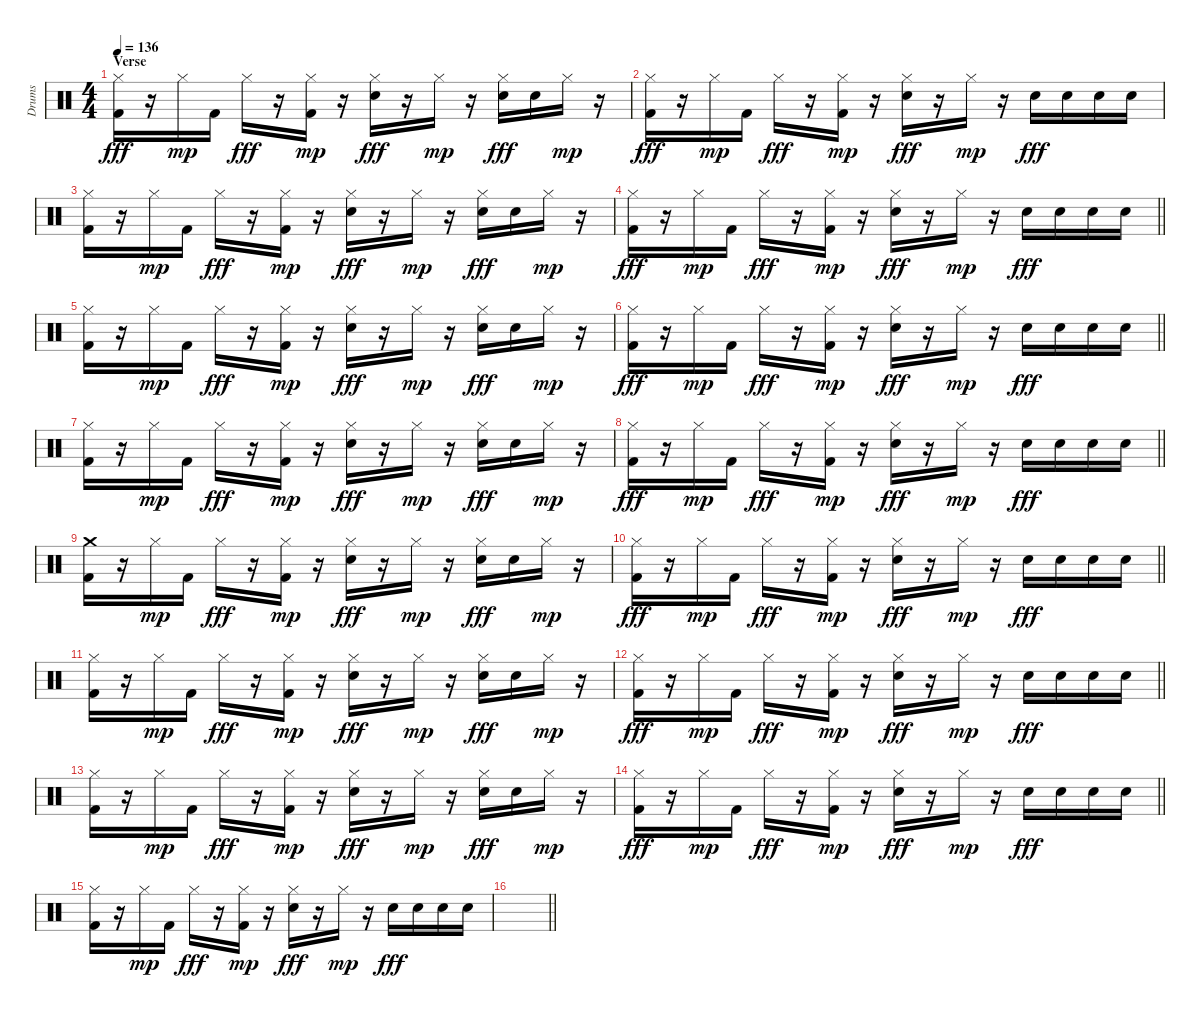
\track ("Drums" "Drums") {instrument percussion}
\staff {score}
\articulation defaults
\ts (4 4)
\section ("" "Verse")
\tempo 136
\clef neutral
\ks c
("Hi-Hat (closed)" "Kick (hit) 2").16{dy fff volume 13} r.16 "Hi-Hat (closed)".16{dy mp} "Kick (hit) 2".16 "Hi-Hat (closed)".16{dy fff} r.16 ("Hi-Hat (closed)" "Kick (hit) 2").16{dy mp} r.16 ("Hi-Hat (closed)" "Electric Snare (hit)").16{dy fff} r.16 "Hi-Hat (closed)".16{dy mp} r.16 ("Hi-Hat (closed)" "Electric Snare (hit)").16{dy fff} "Electric Snare (hit)".16 "Hi-Hat (closed)".16{dy mp} r.16 |
("Hi-Hat (closed)" "Kick (hit) 2").16{dy fff} r.16 "Hi-Hat (closed)".16{dy mp} "Kick (hit) 2".16 "Hi-Hat (closed)".16{dy fff} r.16 ("Hi-Hat (closed)" "Kick (hit) 2").16{dy mp} r.16 ("Hi-Hat (closed)" "Electric Snare (hit)").16{dy fff} r.16 "Hi-Hat (closed)".16{dy mp} r.16 "Electric Snare (hit)".16{dy fff} "Electric Snare (hit)".16 "Electric Snare (hit)".16 "Electric Snare (hit)".16 |
("Hi-Hat (closed)" "Kick (hit) 2").16 r.16 "Hi-Hat (closed)".16{dy mp} "Kick (hit) 2".16 "Hi-Hat (closed)".16{dy fff} r.16 ("Hi-Hat (closed)" "Kick (hit) 2").16{dy mp} r.16 ("Hi-Hat (closed)" "Electric Snare (hit)").16{dy fff} r.16 "Hi-Hat (closed)".16{dy mp} r.16 ("Hi-Hat (closed)" "Electric Snare (hit)").16{dy fff} "Electric Snare (hit)".16 "Hi-Hat (closed)".16{dy mp} r.16 |
\barLineRight lightlight
("Hi-Hat (closed)" "Kick (hit) 2").16{dy fff} r.16 "Hi-Hat (closed)".16{dy mp} "Kick (hit) 2".16 "Hi-Hat (closed)".16{dy fff} r.16 ("Hi-Hat (closed)" "Kick (hit) 2").16{dy mp} r.16 ("Hi-Hat (closed)" "Electric Snare (hit)").16{dy fff} r.16 "Hi-Hat (closed)".16{dy mp} r.16 "Electric Snare (hit)".16{dy fff} "Electric Snare (hit)".16 "Electric Snare (hit)".16 "Electric Snare (hit)".16 |
("Hi-Hat (closed)" "Kick (hit) 2").16 r.16 "Hi-Hat (closed)".16{dy mp} "Kick (hit) 2".16 "Hi-Hat (closed)".16{dy fff} r.16 ("Hi-Hat (closed)" "Kick (hit) 2").16{dy mp} r.16 ("Hi-Hat (closed)" "Electric Snare (hit)").16{dy fff} r.16 "Hi-Hat (closed)".16{dy mp} r.16 ("Hi-Hat (closed)" "Electric Snare (hit)").16{dy fff} "Electric Snare (hit)".16 "Hi-Hat (closed)".16{dy mp} r.16 |
\barLineRight lightlight
("Hi-Hat (closed)" "Kick (hit) 2").16{dy fff} r.16 "Hi-Hat (closed)".16{dy mp} "Kick (hit) 2".16 "Hi-Hat (closed)".16{dy fff} r.16 ("Hi-Hat (closed)" "Kick (hit) 2").16{dy mp} r.16 ("Hi-Hat (closed)" "Electric Snare (hit)").16{dy fff} r.16 "Hi-Hat (closed)".16{dy mp} r.16 "Electric Snare (hit)".16{dy fff} "Electric Snare (hit)".16 "Electric Snare (hit)".16 "Electric Snare (hit)".16 |
("Hi-Hat (closed)" "Kick (hit) 2").16 r.16 "Hi-Hat (closed)".16{dy mp} "Kick (hit) 2".16 "Hi-Hat (closed)".16{dy fff} r.16 ("Hi-Hat (closed)" "Kick (hit) 2").16{dy mp} r.16 ("Hi-Hat (closed)" "Electric Snare (hit)").16{dy fff} r.16 "Hi-Hat (closed)".16{dy mp} r.16 ("Hi-Hat (closed)" "Electric Snare (hit)").16{dy fff} "Electric Snare (hit)".16 "Hi-Hat (closed)".16{dy mp} r.16 |
\barLineRight lightlight
("Hi-Hat (closed)" "Kick (hit) 2").16{dy fff} r.16 "Hi-Hat (closed)".16{dy mp} "Kick (hit) 2".16 "Hi-Hat (closed)".16{dy fff} r.16 ("Hi-Hat (closed)" "Kick (hit) 2").16{dy mp} r.16 ("Hi-Hat (closed)" "Electric Snare (hit)").16{dy fff} r.16 "Hi-Hat (closed)".16{dy mp} r.16 "Electric Snare (hit)".16{dy fff} "Electric Snare (hit)".16 "Electric Snare (hit)".16 "Electric Snare (hit)".16 |
("Crash medium (hit)" "Kick (hit) 2").16 r.16 "Hi-Hat (closed)".16{dy mp} "Kick (hit) 2".16 "Hi-Hat (closed)".16{dy fff} r.16 ("Hi-Hat (closed)" "Kick (hit) 2").16{dy mp} r.16 ("Hi-Hat (closed)" "Electric Snare (hit)").16{dy fff} r.16 "Hi-Hat (closed)".16{dy mp} r.16 ("Hi-Hat (closed)" "Electric Snare (hit)").16{dy fff} "Electric Snare (hit)".16 "Hi-Hat (closed)".16{dy mp} r.16 |
\barLineRight lightlight
("Hi-Hat (closed)" "Kick (hit) 2").16{dy fff} r.16 "Hi-Hat (closed)".16{dy mp} "Kick (hit) 2".16 "Hi-Hat (closed)".16{dy fff} r.16 ("Hi-Hat (closed)" "Kick (hit) 2").16{dy mp} r.16 ("Hi-Hat (closed)" "Electric Snare (hit)").16{dy fff} r.16 "Hi-Hat (closed)".16{dy mp} r.16 "Electric Snare (hit)".16{dy fff} "Electric Snare (hit)".16 "Electric Snare (hit)".16 "Electric Snare (hit)".16 |
("Hi-Hat (closed)" "Kick (hit) 2").16 r.16 "Hi-Hat (closed)".16{dy mp} "Kick (hit) 2".16 "Hi-Hat (closed)".16{dy fff} r.16 ("Hi-Hat (closed)" "Kick (hit) 2").16{dy mp} r.16 ("Hi-Hat (closed)" "Electric Snare (hit)").16{dy fff} r.16 "Hi-Hat (closed)".16{dy mp} r.16 ("Hi-Hat (closed)" "Electric Snare (hit)").16{dy fff} "Electric Snare (hit)".16 "Hi-Hat (closed)".16{dy mp} r.16 |
\barLineRight lightlight
("Hi-Hat (closed)" "Kick (hit) 2").16{dy fff} r.16 "Hi-Hat (closed)".16{dy mp} "Kick (hit) 2".16 "Hi-Hat (closed)".16{dy fff} r.16 ("Hi-Hat (closed)" "Kick (hit) 2").16{dy mp} r.16 ("Hi-Hat (closed)" "Electric Snare (hit)").16{dy fff} r.16 "Hi-Hat (closed)".16{dy mp} r.16 "Electric Snare (hit)".16{dy fff} "Electric Snare (hit)".16 "Electric Snare (hit)".16 "Electric Snare (hit)".16 |
("Hi-Hat (closed)" "Kick (hit) 2").16 r.16 "Hi-Hat (closed)".16{dy mp} "Kick (hit) 2".16 "Hi-Hat (closed)".16{dy fff} r.16 ("Hi-Hat (closed)" "Kick (hit) 2").16{dy mp} r.16 ("Hi-Hat (closed)" "Electric Snare (hit)").16{dy fff} r.16 "Hi-Hat (closed)".16{dy mp} r.16 ("Hi-Hat (closed)" "Electric Snare (hit)").16{dy fff} "Electric Snare (hit)".16 "Hi-Hat (closed)".16{dy mp} r.16 |
\barLineRight lightlight
("Hi-Hat (closed)" "Kick (hit) 2").16{dy fff} r.16 "Hi-Hat (closed)".16{dy mp} "Kick (hit) 2".16 "Hi-Hat (closed)".16{dy fff} r.16 ("Hi-Hat (closed)" "Kick (hit) 2").16{dy mp} r.16 ("Hi-Hat (closed)" "Electric Snare (hit)").16{dy fff} r.16 "Hi-Hat (closed)".16{dy mp} r.16 "Electric Snare (hit)".16{dy fff} "Electric Snare (hit)".16 "Electric Snare (hit)".16 "Electric Snare (hit)".16 |
("Hi-Hat (closed)" "Kick (hit) 2").16 r.16 "Hi-Hat (closed)".16{dy mp} "Kick (hit) 2".16 "Hi-Hat (closed)".16{dy fff} r.16 ("Hi-Hat (closed)" "Kick (hit) 2").16{dy mp} r.16 ("Hi-Hat (closed)" "Electric Snare (hit)").16{dy fff} r.16 "Hi-Hat (closed)".16{dy mp} r.16 "Electric Snare (hit)".16{dy fff} "Electric Snare (hit)".16 "Electric Snare (hit)".16 "Electric Snare (hit)".16 |
\barLineRight lightlight
